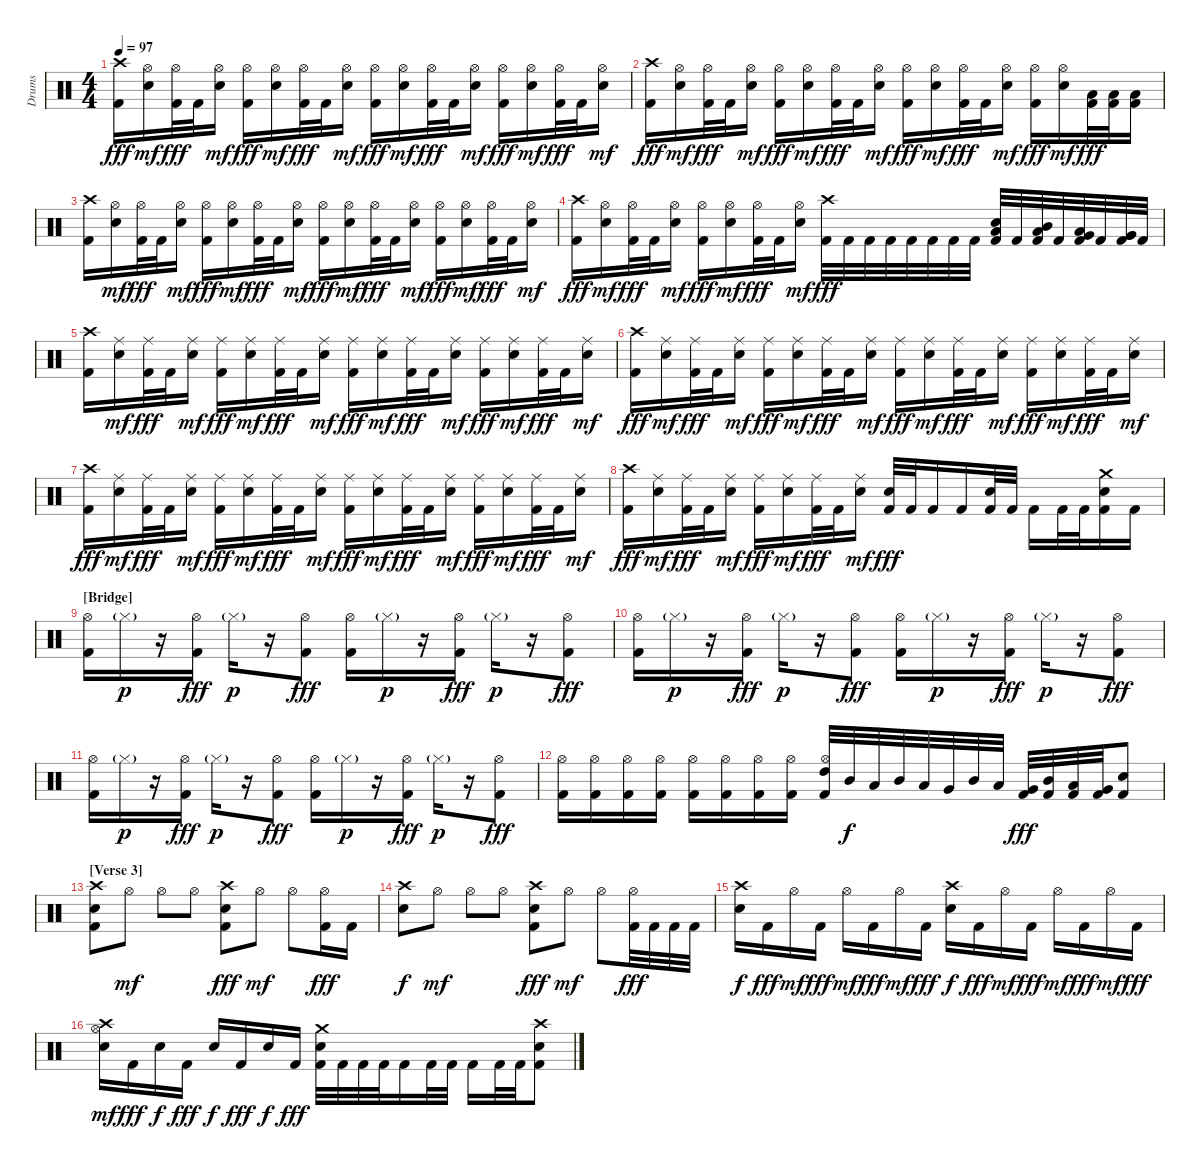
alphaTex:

\track ("Drums" "Drums") {instrument percussion}
\staff {score}
\articulation defaults
\ts (4 4)
\tempo 97
\clef neutral
\ks c
("Crash high (hit)" "Kick (hit) 2").16{dy fff} ("Hi-Hat (open)" "Snare (hit) 2").16{dy mf} ("Hi-Hat (open)" "Kick (hit) 2").32{dy fff} "Kick (hit) 2".32 ("Hi-Hat (open)" "Snare (hit) 2").16{dy mf} ("Hi-Hat (open)" "Kick (hit) 2").16{dy fff} ("Hi-Hat (open)" "Snare (hit) 2").16{dy mf} ("Hi-Hat (open)" "Kick (hit) 2").32{dy fff} "Kick (hit) 2".32 ("Hi-Hat (open)" "Snare (hit) 2").16{dy mf} ("Hi-Hat (open)" "Kick (hit) 2").16{dy fff} ("Hi-Hat (open)" "Snare (hit) 2").16{dy mf} ("Hi-Hat (open)" "Kick (hit) 2").32{dy fff} "Kick (hit) 2".32 ("Hi-Hat (open)" "Snare (hit) 2").16{dy mf} ("Hi-Hat (open)" "Kick (hit) 2").16{dy fff} ("Hi-Hat (open)" "Snare (hit) 2").16{dy mf} ("Hi-Hat (open)" "Kick (hit) 2").32{dy fff} "Kick (hit) 2".32 ("Hi-Hat (open)" "Snare (hit) 2").16{dy mf} |
("Crash high (hit)" "Kick (hit) 2").16{dy fff} ("Hi-Hat (open)" "Snare (hit) 2").16{dy mf} ("Hi-Hat (open)" "Kick (hit) 2").32{dy fff} "Kick (hit) 2".32 ("Hi-Hat (open)" "Snare (hit) 2").16{dy mf} ("Hi-Hat (open)" "Kick (hit) 2").16{dy fff} ("Hi-Hat (open)" "Snare (hit) 2").16{dy mf} ("Hi-Hat (open)" "Kick (hit) 2").32{dy fff} "Kick (hit) 2".32 ("Hi-Hat (open)" "Snare (hit) 2").16{dy mf} ("Hi-Hat (open)" "Kick (hit) 2").16{dy fff} ("Hi-Hat (open)" "Snare (hit) 2").16{dy mf} ("Hi-Hat (open)" "Kick (hit) 2").32{dy fff} "Kick (hit) 2".32 ("Hi-Hat (open)" "Snare (hit) 2").16{dy mf} ("Hi-Hat (open)" "Kick (hit) 2").16{dy fff} ("Hi-Hat (open)" "Snare (hit) 2").16{dy mf} ("Low Tom (hit)" "Kick (hit) 2").32{dy fff} ("Low Tom (hit)" "Kick (hit) 2").32 ("Low Tom (hit)" "Kick (hit) 2").16 |
("Crash high (hit)" "Kick (hit) 2").16 ("Hi-Hat (open)" "Snare (hit) 2").16{dy mf} ("Hi-Hat (open)" "Kick (hit) 2").32{dy fff} "Kick (hit) 2".32 ("Hi-Hat (open)" "Snare (hit) 2").16{dy mf} ("Hi-Hat (open)" "Kick (hit) 2").16{dy fff} ("Hi-Hat (open)" "Snare (hit) 2").16{dy mf} ("Hi-Hat (open)" "Kick (hit) 2").32{dy fff} "Kick (hit) 2".32 ("Hi-Hat (open)" "Snare (hit) 2").16{dy mf} ("Hi-Hat (open)" "Kick (hit) 2").16{dy fff} ("Hi-Hat (open)" "Snare (hit) 2").16{dy mf} ("Hi-Hat (open)" "Kick (hit) 2").32{dy fff} "Kick (hit) 2".32 ("Hi-Hat (open)" "Snare (hit) 2").16{dy mf} ("Hi-Hat (open)" "Kick (hit) 2").16{dy fff} ("Hi-Hat (open)" "Snare (hit) 2").16{dy mf} ("Hi-Hat (open)" "Kick (hit) 2").32{dy fff} "Kick (hit) 2".32 ("Hi-Hat (open)" "Snare (hit) 2").16{dy mf} |
("Crash high (hit)" "Kick (hit) 2").16{dy fff} ("Hi-Hat (open)" "Snare (hit) 2").16{dy mf} ("Hi-Hat (open)" "Kick (hit) 2").32{dy fff} "Kick (hit) 2".32 ("Hi-Hat (open)" "Snare (hit) 2").16{dy mf} ("Hi-Hat (open)" "Kick (hit) 2").16{dy fff} ("Hi-Hat (open)" "Snare (hit) 2").16{dy mf} ("Hi-Hat (open)" "Kick (hit) 2").32{dy fff} "Kick (hit) 2".32 ("Hi-Hat (open)" "Snare (hit) 2").16{dy mf} ("Crash high (hit)" "Kick (hit) 2").32{dy fff} "Kick (hit) 2".32 "Kick (hit) 2".32 "Kick (hit) 2".32 "Kick (hit) 2".32 "Kick (hit) 2".32 "Kick (hit) 2".32 "Kick (hit) 2".32 ("Low Tom (hit)" "Snare (hit) 2" "Kick (hit) 2").32 "Kick (hit) 2".32 ("Low Tom (hit)" "Mid Tom (hit)" "Kick (hit) 2").32 "Kick (hit) 2".32 ("Very Low Tom (hit)" "Low Tom (hit)" "Kick (hit) 2").32 "Kick (hit) 2".32 ("Very Low Tom (hit)" "Very Low Tom (hit)" "Kick (hit) 2").32 "Kick (hit) 2".32 |
\section ("" "")
("Crash high (hit)" "Kick (hit) 2").16 ("Ride (middle)" "Snare (hit) 2").16{dy mf} ("Ride (middle)" "Kick (hit) 2").32{dy fff} "Kick (hit) 2".32 ("Ride (middle)" "Snare (hit) 2").16{dy mf} ("Ride (middle)" "Kick (hit) 2").16{dy fff} ("Ride (middle)" "Snare (hit) 2").16{dy mf} ("Ride (middle)" "Kick (hit) 2").32{dy fff} "Kick (hit) 2".32 ("Ride (middle)" "Snare (hit) 2").16{dy mf} ("Ride (middle)" "Kick (hit) 2").16{dy fff} ("Ride (middle)" "Snare (hit) 2").16{dy mf} ("Ride (middle)" "Kick (hit) 2").32{dy fff} "Kick (hit) 2".32 ("Ride (middle)" "Snare (hit) 2").16{dy mf} ("Ride (middle)" "Kick (hit) 2").16{dy fff} ("Ride (middle)" "Snare (hit) 2").16{dy mf} ("Ride (middle)" "Kick (hit) 2").32{dy fff} "Kick (hit) 2".32 ("Ride (middle)" "Snare (hit) 2").16{dy mf} |
("Crash high (hit)" "Kick (hit) 2").16{dy fff} ("Ride (middle)" "Snare (hit) 2").16{dy mf} ("Ride (middle)" "Kick (hit) 2").32{dy fff} "Kick (hit) 2".32 ("Ride (middle)" "Snare (hit) 2").16{dy mf} ("Ride (middle)" "Kick (hit) 2").16{dy fff} ("Ride (middle)" "Snare (hit) 2").16{dy mf} ("Ride (middle)" "Kick (hit) 2").32{dy fff} "Kick (hit) 2".32 ("Ride (middle)" "Snare (hit) 2").16{dy mf} ("Ride (middle)" "Kick (hit) 2").16{dy fff} ("Ride (middle)" "Snare (hit) 2").16{dy mf} ("Ride (middle)" "Kick (hit) 2").32{dy fff} "Kick (hit) 2".32 ("Ride (middle)" "Snare (hit) 2").16{dy mf} ("Ride (middle)" "Kick (hit) 2").16{dy fff} ("Ride (middle)" "Snare (hit) 2").16{dy mf} ("Ride (middle)" "Kick (hit) 2").32{dy fff} "Kick (hit) 2".32 ("Ride (middle)" "Snare (hit) 2").16{dy mf} |
("Crash high (hit)" "Kick (hit) 2").16{dy fff} ("Ride (middle)" "Snare (hit) 2").16{dy mf} ("Ride (middle)" "Kick (hit) 2").32{dy fff} "Kick (hit) 2".32 ("Ride (middle)" "Snare (hit) 2").16{dy mf} ("Ride (middle)" "Kick (hit) 2").16{dy fff} ("Ride (middle)" "Snare (hit) 2").16{dy mf} ("Ride (middle)" "Kick (hit) 2").32{dy fff} "Kick (hit) 2".32 ("Ride (middle)" "Snare (hit) 2").16{dy mf} ("Ride (middle)" "Kick (hit) 2").16{dy fff} ("Ride (middle)" "Snare (hit) 2").16{dy mf} ("Ride (middle)" "Kick (hit) 2").32{dy fff} "Kick (hit) 2".32 ("Ride (middle)" "Snare (hit) 2").16{dy mf} ("Ride (middle)" "Kick (hit) 2").16{dy fff} ("Ride (middle)" "Snare (hit) 2").16{dy mf} ("Ride (middle)" "Kick (hit) 2").32{dy fff} "Kick (hit) 2".32 ("Ride (middle)" "Snare (hit) 2").16{dy mf} |
("Crash high (hit)" "Kick (hit) 2").16{dy fff} ("Ride (middle)" "Snare (hit) 2").16{dy mf} ("Ride (middle)" "Kick (hit) 2").32{dy fff} "Kick (hit) 2".32 ("Ride (middle)" "Snare (hit) 2").16{dy mf} ("Ride (middle)" "Kick (hit) 2").16{dy fff} ("Ride (middle)" "Snare (hit) 2").16{dy mf} ("Ride (middle)" "Kick (hit) 2").32{dy fff} "Kick (hit) 2".32 ("Ride (middle)" "Snare (hit) 2").16{dy mf} ("Snare (hit) 2" "Kick (hit) 2").32{dy fff} "Kick (hit) 2".32 "Kick (hit) 2".16 "Kick (hit) 2".16 ("Snare (hit) 2" "Kick (hit) 2").32 "Kick (hit) 2".32 "Kick (hit) 2".16 "Kick (hit) 2".32 "Kick (hit) 2".32 ("Crash medium (hit)" "Snare (hit) 2" "Kick (hit) 2").16 "Kick (hit) 2".16 |
\section ("" "[Bridge]")
("Hi-Hat (open)" "Kick (hit) 2").16 "Hi-Hat (closed)"{g}.16{dy p} r.16 ("Hi-Hat (open)" "Kick (hit) 2").16{dy fff} "Hi-Hat (closed)"{g}.16{dy p} r.16 ("Hi-Hat (open)" "Kick (hit) 2").8{dy fff} ("Hi-Hat (open)" "Kick (hit) 2").16 "Hi-Hat (closed)"{g}.16{dy p} r.16 ("Hi-Hat (open)" "Kick (hit) 2").16{dy fff} "Hi-Hat (closed)"{g}.16{dy p} r.16 ("Hi-Hat (open)" "Kick (hit) 2").8{dy fff} |
("Hi-Hat (open)" "Kick (hit) 2").16 "Hi-Hat (closed)"{g}.16{dy p} r.16 ("Hi-Hat (open)" "Kick (hit) 2").16{dy fff} "Hi-Hat (closed)"{g}.16{dy p} r.16 ("Hi-Hat (open)" "Kick (hit) 2").8{dy fff} ("Hi-Hat (open)" "Kick (hit) 2").16 "Hi-Hat (closed)"{g}.16{dy p} r.16 ("Hi-Hat (open)" "Kick (hit) 2").16{dy fff} "Hi-Hat (closed)"{g}.16{dy p} r.16 ("Hi-Hat (open)" "Kick (hit) 2").8{dy fff} |
("Hi-Hat (open)" "Kick (hit) 2").16 "Hi-Hat (closed)"{g}.16{dy p} r.16 ("Hi-Hat (open)" "Kick (hit) 2").16{dy fff} "Hi-Hat (closed)"{g}.16{dy p} r.16 ("Hi-Hat (open)" "Kick (hit) 2").8{dy fff} ("Hi-Hat (open)" "Kick (hit) 2").16 "Hi-Hat (closed)"{g}.16{dy p} r.16 ("Hi-Hat (open)" "Kick (hit) 2").16{dy fff} "Hi-Hat (closed)"{g}.16{dy p} r.16 ("Hi-Hat (open)" "Kick (hit) 2").8{dy fff} |
("Hi-Hat (open)" "Kick (hit) 2").16 ("Hi-Hat (open)" "Kick (hit) 2").16 ("Hi-Hat (open)" "Kick (hit) 2").16 ("Hi-Hat (open)" "Kick (hit) 2").16 ("Hi-Hat (open)" "Kick (hit) 2").16 ("Hi-Hat (open)" "Kick (hit) 2").16 ("Hi-Hat (open)" "Kick (hit) 2").16 ("Hi-Hat (open)" "Kick (hit) 2").16 ("Hi-Hat (open)" "High Tom (hit)" "Kick (hit) 2").32 "Mid Tom (hit)".32{dy f} "Low Tom (hit)".32 "Mid Tom (hit)".32 "Low Tom (hit)".32 "Very Low Tom (hit)".32 "Mid Tom (hit)".32 "Low Tom (hit)".32 ("Very Low Tom (hit)" "Kick (hit) 2").32{dy fff} ("Mid Tom (hit)" "Kick (hit) 2").32 ("Low Tom (hit)" "Kick (hit) 2").32 ("Very Low Tom (hit)" "Kick (hit) 2").32 ("Snare (hit) 2" "Kick (hit) 2").8 |
\section ("" "[Verse 3]")
("Crash high (hit)" "Snare (hit) 2" "Kick (hit) 2").8 "Hi-Hat (open)".8{dy mf} "Hi-Hat (open)".8 "Hi-Hat (open)".8 ("Crash high (hit)" "Snare (hit) 2" "Kick (hit) 2").8{dy fff} "Hi-Hat (open)".8{dy mf} "Hi-Hat (open)".8 ("Hi-Hat (open)" "Kick (hit) 2").16{dy fff} "Kick (hit) 2".16 |
("Crash high (hit)" "Snare (hit) 2").8{dy f} "Hi-Hat (open)".8{dy mf} "Hi-Hat (open)".8 "Hi-Hat (open)".8 ("Crash high (hit)" "Snare (hit) 2" "Kick (hit) 2").8{dy fff} "Hi-Hat (open)".8{dy mf} "Hi-Hat (open)".8 ("Hi-Hat (open)" "Kick (hit) 2").32{dy fff} "Kick (hit) 2".32 "Kick (hit) 2".32 "Kick (hit) 2".32 |
("Crash high (hit)" "Snare (hit) 2").16{dy f} "Kick (hit) 2".16{dy fff} "Hi-Hat (open)".16{dy mf} "Kick (hit) 2".16{dy fff} "Hi-Hat (open)".16{dy mf} "Kick (hit) 2".16{dy fff} "Hi-Hat (open)".16{dy mf} "Kick (hit) 2".16{dy fff} ("Crash high (hit)" "Snare (hit) 2").16{dy f} "Kick (hit) 2".16{dy fff} "Hi-Hat (open)".16{dy mf} "Kick (hit) 2".16{dy fff} "Hi-Hat (open)".16{dy mf} "Kick (hit) 2".16{dy fff} "Hi-Hat (open)".16{dy mf} "Kick (hit) 2".16{dy fff} |
("Crash high (hit)" "Hi-Hat (open)" "Snare (hit) 2").16{dy mf} "Kick (hit) 2".16{dy fff} "Snare (hit) 2".16{dy f} "Kick (hit) 2".16{dy fff} "Snare (hit) 2".16{dy f} "Kick (hit) 2".16{dy fff} "Snare (hit) 2".16{dy f} "Kick (hit) 2".16{dy fff} ("Crash medium (hit)" "Snare (hit) 2" "Kick (hit) 2").32 "Kick (hit) 2".32 "Kick (hit) 2".32 "Kick (hit) 2".32 "Kick (hit) 2".16 "Kick (hit) 2".32 "Kick (hit) 2".32 "Kick (hit) 2".16 "Kick (hit) 2".32 "Kick (hit) 2".32 ("Crash high (hit)" "Snare (hit) 2" "Kick (hit) 2").8
